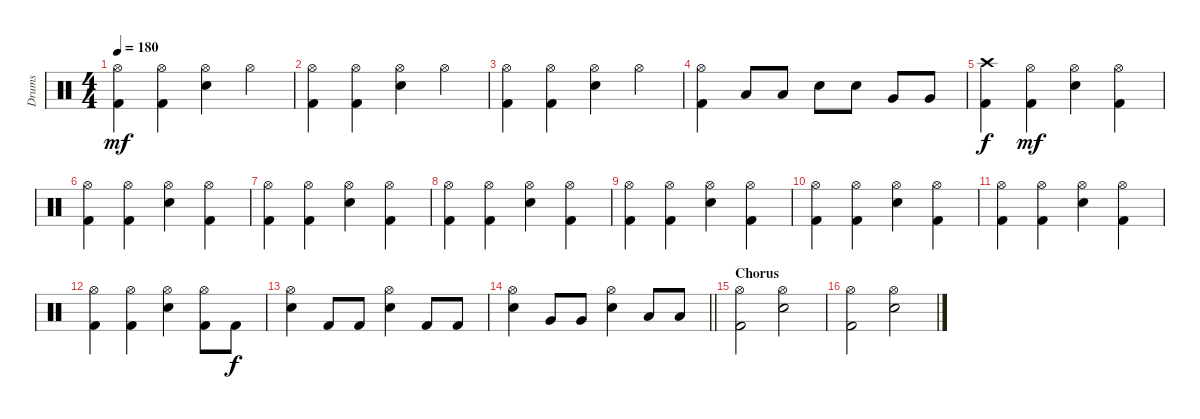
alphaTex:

\track ("Drums" "Drums") {instrument percussion}
\staff {score}
\articulation defaults
\ts (4 4)
\tempo 180
\clef neutral
\ks c
("Hi-Hat (open)" "Kick (hit) 2").4{dy mf} ("Hi-Hat (open)" "Kick (hit) 2").4 ("Hi-Hat (open)" "Snare (hit) 2").4 "Hi-Hat (open)".4 |
("Hi-Hat (open)" "Kick (hit) 2").4 ("Hi-Hat (open)" "Kick (hit) 2").4 ("Hi-Hat (open)" "Snare (hit) 2").4 "Hi-Hat (open)".4 |
("Hi-Hat (open)" "Kick (hit) 2").4 ("Hi-Hat (open)" "Kick (hit) 2").4 ("Hi-Hat (open)" "Snare (hit) 2").4 "Hi-Hat (open)".4 |
("Hi-Hat (open)" "Kick (hit) 2").4 "Low Tom (hit)".8 "Low Tom (hit)".8 "Snare (hit) 2".8 "Snare (hit) 2".8 "Very Low Tom (hit)".8 "Very Low Tom (hit)".8 |
("Crash high (hit)" "Kick (hit) 2").4{dy f} ("Hi-Hat (open)" "Kick (hit) 2").4{dy mf} ("Hi-Hat (open)" "Snare (hit) 2").4 ("Hi-Hat (open)" "Kick (hit) 2").4 |
("Hi-Hat (open)" "Kick (hit) 2").4 ("Hi-Hat (open)" "Kick (hit) 2").4 ("Hi-Hat (open)" "Snare (hit) 2").4 ("Hi-Hat (open)" "Kick (hit) 2").4 |
("Hi-Hat (open)" "Kick (hit) 2").4 ("Hi-Hat (open)" "Kick (hit) 2").4 ("Hi-Hat (open)" "Snare (hit) 2").4 ("Hi-Hat (open)" "Kick (hit) 2").4 |
("Hi-Hat (open)" "Kick (hit) 2").4 ("Hi-Hat (open)" "Kick (hit) 2").4 ("Hi-Hat (open)" "Snare (hit) 2").4 ("Hi-Hat (open)" "Kick (hit) 2").4 |
("Hi-Hat (open)" "Kick (hit) 2").4 ("Hi-Hat (open)" "Kick (hit) 2").4 ("Hi-Hat (open)" "Snare (hit) 2").4 ("Hi-Hat (open)" "Kick (hit) 2").4 |
("Hi-Hat (open)" "Kick (hit) 2").4 ("Hi-Hat (open)" "Kick (hit) 2").4 ("Hi-Hat (open)" "Snare (hit) 2").4 ("Hi-Hat (open)" "Kick (hit) 2").4 |
("Hi-Hat (open)" "Kick (hit) 2").4 ("Hi-Hat (open)" "Kick (hit) 2").4 ("Hi-Hat (open)" "Snare (hit) 2").4 ("Hi-Hat (open)" "Kick (hit) 2").4 |
("Hi-Hat (open)" "Kick (hit) 2").4 ("Hi-Hat (open)" "Kick (hit) 2").4 ("Hi-Hat (open)" "Snare (hit) 2").4 ("Hi-Hat (open)" "Kick (hit) 2").8 "Kick (hit) 2".8{dy f} |
("Hi-Hat (open)" "Snare (hit) 2").4 "Kick (hit) 2".8 "Kick (hit) 2".8 ("Hi-Hat (open)" "Snare (hit) 2").4 "Kick (hit) 2".8 "Kick (hit) 2".8 |
\barLineRight lightlight
("Hi-Hat (open)" "Snare (hit) 2").4 "Very Low Tom (hit)".8 "Very Low Tom (hit)".8 ("Hi-Hat (open)" "Snare (hit) 2").4 "Low Floor Tom (hit)".8 "Low Floor Tom (hit)".8 |
\section ("" "Chorus")
("Hi-Hat (open)" "Kick (hit) 2").2 ("Hi-Hat (open)" "Snare (hit) 2").2 |
("Hi-Hat (open)" "Kick (hit) 2").2 ("Hi-Hat (open)" "Snare (hit) 2").2
